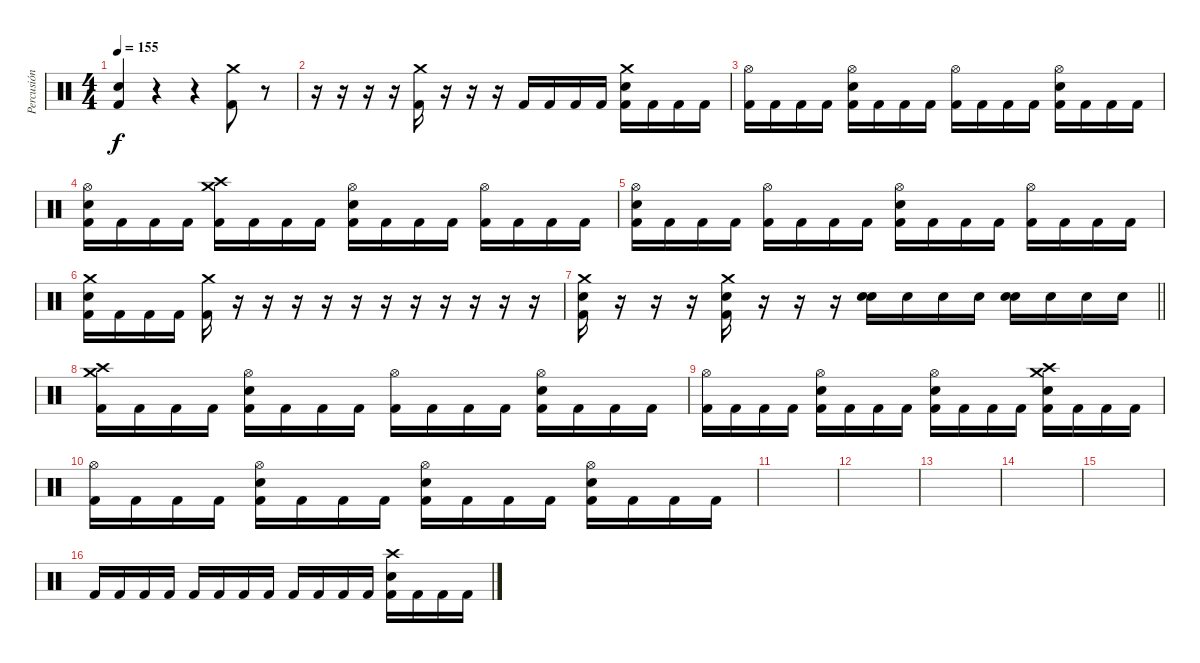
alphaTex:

\track ("Percusión" "Percusión") {instrument percussion}
\staff {score}
\articulation defaults
\ts (4 4)
\tempo 155
\clef neutral
\ks c
("Electric Snare (hit)" "Kick (hit) 2").4{dy f} r.4 r.4 ("Crash medium (hit)" "Kick (hit) 2").8 r.8 |
r.16 r.16 r.16 r.16 ("Crash medium (hit)" "Kick (hit) 2").16 r.16 r.16 r.16 "Kick (hit) 2".16 "Kick (hit) 2".16 "Kick (hit) 2".16 "Kick (hit) 2".16 ("Crash medium (hit)" "Electric Snare (hit)" "Kick (hit) 2").16 "Kick (hit) 2".16 "Kick (hit) 2".16 "Kick (hit) 2".16 |
("Hi-Hat (open)" "Kick (hit) 2").16 "Kick (hit) 2".16 "Kick (hit) 2".16 "Kick (hit) 2".16 ("Hi-Hat (open)" "Electric Snare (hit)" "Kick (hit) 2").16 "Kick (hit) 2".16 "Kick (hit) 2".16 "Kick (hit) 2".16 ("Hi-Hat (open)" "Kick (hit) 2").16 "Kick (hit) 2".16 "Kick (hit) 2".16 "Kick (hit) 2".16 ("Hi-Hat (open)" "Electric Snare (hit)" "Kick (hit) 2").16 "Kick (hit) 2".16 "Kick (hit) 2".16 "Kick (hit) 2".16 |
("Hi-Hat (open)" "Electric Snare (hit)" "Kick (hit) 2").16 "Kick (hit) 2".16 "Kick (hit) 2".16 "Kick (hit) 2".16 ("Crash medium (hit)" "Crash high (hit)" "Kick (hit) 2").16 "Kick (hit) 2".16 "Kick (hit) 2".16 "Kick (hit) 2".16 ("Hi-Hat (open)" "Electric Snare (hit)" "Kick (hit) 2").16 "Kick (hit) 2".16 "Kick (hit) 2".16 "Kick (hit) 2".16 ("Hi-Hat (open)" "Kick (hit) 2").16 "Kick (hit) 2".16 "Kick (hit) 2".16 "Kick (hit) 2".16 |
("Hi-Hat (open)" "Electric Snare (hit)" "Kick (hit) 2").16 "Kick (hit) 2".16 "Kick (hit) 2".16 "Kick (hit) 2".16 ("Hi-Hat (open)" "Kick (hit) 2").16 "Kick (hit) 2".16 "Kick (hit) 2".16 "Kick (hit) 2".16 ("Hi-Hat (open)" "Electric Snare (hit)" "Kick (hit) 2").16 "Kick (hit) 2".16 "Kick (hit) 2".16 "Kick (hit) 2".16 ("Hi-Hat (open)" "Kick (hit) 2").16 "Kick (hit) 2".16 "Kick (hit) 2".16 "Kick (hit) 2".16 |
("Crash medium (hit)" "Electric Snare (hit)" "Kick (hit) 2").16 "Kick (hit) 2".16 "Kick (hit) 2".16 "Kick (hit) 2".16 ("Crash medium (hit)" "Kick (hit) 2").16 r.16 r.16 r.16 r.16 r.16 r.16 r.16 r.16 r.16 r.16 r.16 |
\barLineRight lightlight
("Crash medium (hit)" "Electric Snare (hit)" "Kick (hit) 2").16 r.16 r.16 r.16 ("Crash medium (hit)" "Electric Snare (hit)" "Kick (hit) 2").16 r.16 r.16 r.16 ("Snare (hit) 2" "Electric Snare (hit)").16 "Electric Snare (hit)".16 "Electric Snare (hit)".16 "Electric Snare (hit)".16 ("Snare (hit) 2" "Electric Snare (hit)").16 "Electric Snare (hit)".16 "Electric Snare (hit)".16 "Electric Snare (hit)".16 |
("Crash medium (hit)" "Crash high (hit)" "Kick (hit) 2").16 "Kick (hit) 2".16 "Kick (hit) 2".16 "Kick (hit) 2".16 ("Hi-Hat (open)" "Electric Snare (hit)" "Kick (hit) 2").16 "Kick (hit) 2".16 "Kick (hit) 2".16 "Kick (hit) 2".16 ("Hi-Hat (open)" "Kick (hit) 2").16 "Kick (hit) 2".16 "Kick (hit) 2".16 "Kick (hit) 2".16 ("Hi-Hat (open)" "Electric Snare (hit)" "Kick (hit) 2").16 "Kick (hit) 2".16 "Kick (hit) 2".16 "Kick (hit) 2".16 |
("Hi-Hat (open)" "Kick (hit) 2").16 "Kick (hit) 2".16 "Kick (hit) 2".16 "Kick (hit) 2".16 ("Hi-Hat (open)" "Electric Snare (hit)" "Kick (hit) 2").16 "Kick (hit) 2".16 "Kick (hit) 2".16 "Kick (hit) 2".16 ("Hi-Hat (open)" "Electric Snare (hit)" "Kick (hit) 2").16 "Kick (hit) 2".16 "Kick (hit) 2".16 "Kick (hit) 2".16 ("Crash medium (hit)" "Crash high (hit)" "Electric Snare (hit)" "Kick (hit) 2").16 "Kick (hit) 2".16 "Kick (hit) 2".16 "Kick (hit) 2".16 |
("Hi-Hat (open)" "Kick (hit) 2").16 "Kick (hit) 2".16 "Kick (hit) 2".16 "Kick (hit) 2".16 ("Hi-Hat (open)" "Electric Snare (hit)" "Kick (hit) 2").16 "Kick (hit) 2".16 "Kick (hit) 2".16 "Kick (hit) 2".16 ("Hi-Hat (open)" "Electric Snare (hit)" "Kick (hit) 2").16 "Kick (hit) 2".16 "Kick (hit) 2".16 "Kick (hit) 2".16 ("Hi-Hat (open)" "Electric Snare (hit)" "Kick (hit) 2").16 "Kick (hit) 2".16 "Kick (hit) 2".16 "Kick (hit) 2".16 |
|
|
|
|
|
"Kick (hit) 2".16 "Kick (hit) 2".16 "Kick (hit) 2".16 "Kick (hit) 2".16 "Kick (hit) 2".16 "Kick (hit) 2".16 "Kick (hit) 2".16 "Kick (hit) 2".16 "Kick (hit) 2".16 "Kick (hit) 2".16 "Kick (hit) 2".16 "Kick (hit) 2".16 ("Crash high (hit)" "Electric Snare (hit)" "Kick (hit) 2").16 "Kick (hit) 2".16 "Kick (hit) 2".16 "Kick (hit) 2".16
